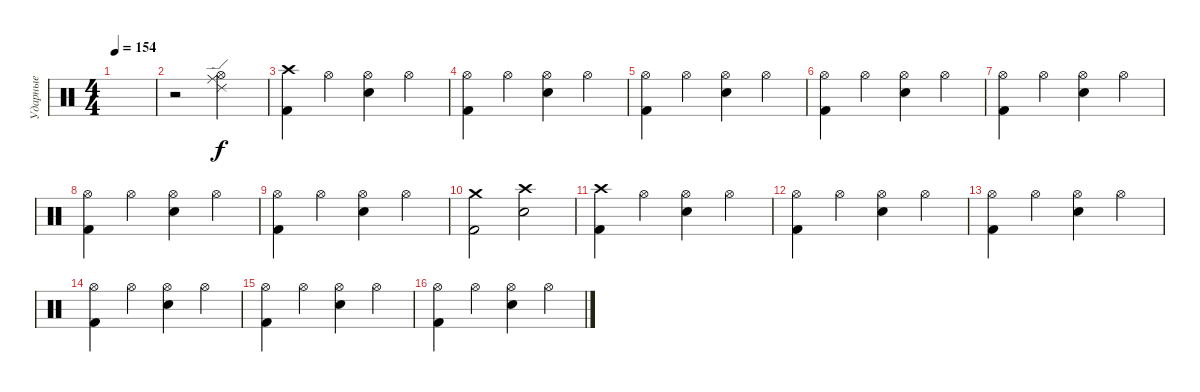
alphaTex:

\track ("Ударные" "Ударные") {instrument percussion}
\staff {score}
\articulation defaults
\ts (4 4)
\tempo 154
\clef neutral
\ks c
|
r.2 ("Ride (middle)" "Hi-Hat (open)" "Ride (edge) 2").2 |
("Crash high (hit)" "Kick (hit) 2").4 "Hi-Hat (open)".4 ("Hi-Hat (open)" "Snare (hit) 2").4 "Hi-Hat (open)".4 |
("Hi-Hat (open)" "Kick (hit) 2").4 "Hi-Hat (open)".4 ("Hi-Hat (open)" "Snare (hit) 2").4 "Hi-Hat (open)".4 |
("Hi-Hat (open)" "Kick (hit) 2").4 "Hi-Hat (open)".4 ("Hi-Hat (open)" "Snare (hit) 2").4 "Hi-Hat (open)".4 |
("Hi-Hat (open)" "Kick (hit) 2").4 "Hi-Hat (open)".4 ("Hi-Hat (open)" "Snare (hit) 2").4 "Hi-Hat (open)".4 |
("Hi-Hat (open)" "Kick (hit) 2").4 "Hi-Hat (open)".4 ("Hi-Hat (open)" "Snare (hit) 2").4 "Hi-Hat (open)".4 |
("Hi-Hat (open)" "Kick (hit) 2").4 "Hi-Hat (open)".4 ("Hi-Hat (open)" "Snare (hit) 2").4 "Hi-Hat (open)".4 |
("Hi-Hat (open)" "Kick (hit) 2").4 "Hi-Hat (open)".4 ("Hi-Hat (open)" "Snare (hit) 2").4 "Hi-Hat (open)".4 |
("Crash medium (hit)" "Kick (hit) 2").2 ("Crash high (hit)" "Snare (hit) 2").2 |
("Crash high (hit)" "Kick (hit) 2").4 "Hi-Hat (open)".4 ("Hi-Hat (open)" "Snare (hit) 2").4 "Hi-Hat (open)".4 |
("Hi-Hat (open)" "Kick (hit) 2").4 "Hi-Hat (open)".4 ("Hi-Hat (open)" "Snare (hit) 2").4 "Hi-Hat (open)".4 |
("Hi-Hat (open)" "Kick (hit) 2").4 "Hi-Hat (open)".4 ("Hi-Hat (open)" "Snare (hit) 2").4 "Hi-Hat (open)".4 |
("Hi-Hat (open)" "Kick (hit) 2").4 "Hi-Hat (open)".4 ("Hi-Hat (open)" "Snare (hit) 2").4 "Hi-Hat (open)".4 |
("Hi-Hat (open)" "Kick (hit) 2").4 "Hi-Hat (open)".4 ("Hi-Hat (open)" "Snare (hit) 2").4 "Hi-Hat (open)".4 |
("Hi-Hat (open)" "Kick (hit) 2").4 "Hi-Hat (open)".4 ("Hi-Hat (open)" "Snare (hit) 2").4 "Hi-Hat (open)".4
